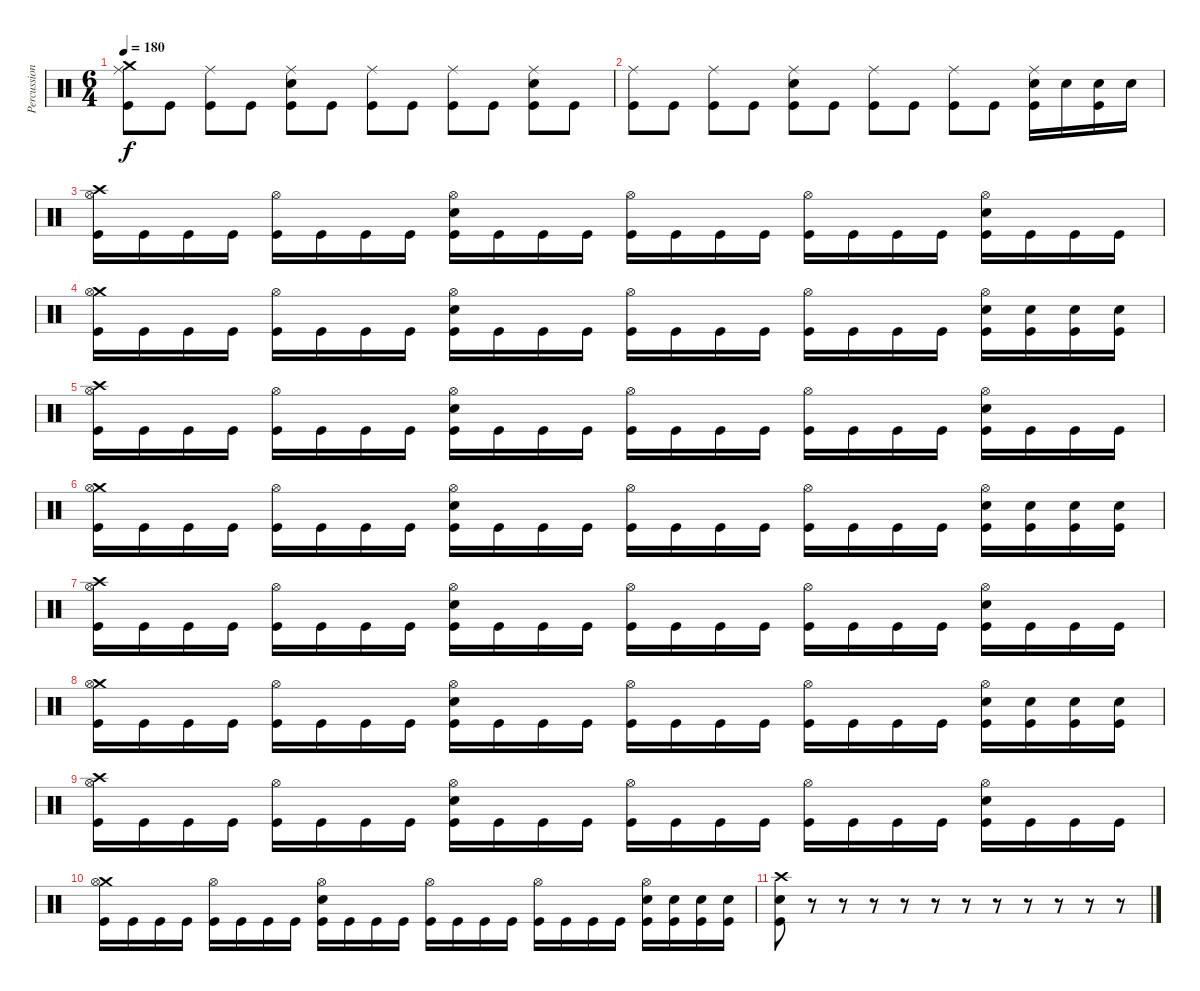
\track ("Percussion" "Percussion") {instrument percussion}
\staff {score}
\articulation defaults
\ts (6 4)
\tempo 180
\clef neutral
\ks c
("Crash medium (hit)" "Ride (middle)" "Kick (hit)").8{dy f} "Kick (hit)".8 ("Ride (middle)" "Kick (hit)").8 "Kick (hit)".8 ("Electric Snare (hit)" "Ride (middle)" "Kick (hit)").8 "Kick (hit)".8 ("Ride (middle)" "Kick (hit)").8 "Kick (hit)".8 ("Ride (middle)" "Kick (hit)").8 "Kick (hit)".8 ("Electric Snare (hit)" "Ride (middle)" "Kick (hit)").8 "Kick (hit)".8 |
("Ride (middle)" "Kick (hit)").8 "Kick (hit)".8 ("Ride (middle)" "Kick (hit)").8 "Kick (hit)".8 ("Electric Snare (hit)" "Ride (middle)" "Kick (hit)").8 "Kick (hit)".8 ("Ride (middle)" "Kick (hit)").8 "Kick (hit)".8 ("Ride (middle)" "Kick (hit)").8 "Kick (hit)".8 ("Electric Snare (hit)" "Ride (middle)" "Kick (hit)").16 "Electric Snare (hit)".16 ("Electric Snare (hit)" "Kick (hit)").16 "Electric Snare (hit)".16 |
("Crash high (hit)" "Hi-Hat (open)" "Kick (hit)").16 "Kick (hit)".16 "Kick (hit)".16 "Kick (hit)".16 ("Hi-Hat (open)" "Kick (hit)").16 "Kick (hit)".16 "Kick (hit)".16 "Kick (hit)".16 ("Electric Snare (hit)" "Hi-Hat (open)" "Kick (hit)").16 "Kick (hit)".16 "Kick (hit)".16 "Kick (hit)".16 ("Hi-Hat (open)" "Kick (hit)").16 "Kick (hit)".16 "Kick (hit)".16 "Kick (hit)".16 ("Hi-Hat (open)" "Kick (hit)").16 "Kick (hit)".16 "Kick (hit)".16 "Kick (hit)".16 ("Electric Snare (hit)" "Hi-Hat (open)" "Kick (hit)").16 "Kick (hit)".16 "Kick (hit)".16 "Kick (hit)".16 |
("Crash medium (hit)" "Hi-Hat (open)" "Kick (hit)").16 "Kick (hit)".16 "Kick (hit)".16 "Kick (hit)".16 ("Hi-Hat (open)" "Kick (hit)").16 "Kick (hit)".16 "Kick (hit)".16 "Kick (hit)".16 ("Electric Snare (hit)" "Hi-Hat (open)" "Kick (hit)").16 "Kick (hit)".16 "Kick (hit)".16 "Kick (hit)".16 ("Hi-Hat (open)" "Kick (hit)").16 "Kick (hit)".16 "Kick (hit)".16 "Kick (hit)".16 ("Hi-Hat (open)" "Kick (hit)").16 "Kick (hit)".16 "Kick (hit)".16 "Kick (hit)".16 ("Electric Snare (hit)" "Hi-Hat (open)" "Kick (hit)").16 ("Electric Snare (hit)" "Kick (hit)").16 ("Electric Snare (hit)" "Kick (hit)").16 ("Electric Snare (hit)" "Kick (hit)").16 |
("Crash high (hit)" "Hi-Hat (open)" "Kick (hit)").16 "Kick (hit)".16 "Kick (hit)".16 "Kick (hit)".16 ("Hi-Hat (open)" "Kick (hit)").16 "Kick (hit)".16 "Kick (hit)".16 "Kick (hit)".16 ("Electric Snare (hit)" "Hi-Hat (open)" "Kick (hit)").16 "Kick (hit)".16 "Kick (hit)".16 "Kick (hit)".16 ("Hi-Hat (open)" "Kick (hit)").16 "Kick (hit)".16 "Kick (hit)".16 "Kick (hit)".16 ("Hi-Hat (open)" "Kick (hit)").16 "Kick (hit)".16 "Kick (hit)".16 "Kick (hit)".16 ("Electric Snare (hit)" "Hi-Hat (open)" "Kick (hit)").16 "Kick (hit)".16 "Kick (hit)".16 "Kick (hit)".16 |
("Crash medium (hit)" "Hi-Hat (open)" "Kick (hit)").16 "Kick (hit)".16 "Kick (hit)".16 "Kick (hit)".16 ("Hi-Hat (open)" "Kick (hit)").16 "Kick (hit)".16 "Kick (hit)".16 "Kick (hit)".16 ("Electric Snare (hit)" "Hi-Hat (open)" "Kick (hit)").16 "Kick (hit)".16 "Kick (hit)".16 "Kick (hit)".16 ("Hi-Hat (open)" "Kick (hit)").16 "Kick (hit)".16 "Kick (hit)".16 "Kick (hit)".16 ("Hi-Hat (open)" "Kick (hit)").16 "Kick (hit)".16 "Kick (hit)".16 "Kick (hit)".16 ("Electric Snare (hit)" "Hi-Hat (open)" "Kick (hit)").16 ("Electric Snare (hit)" "Kick (hit)").16 ("Electric Snare (hit)" "Kick (hit)").16 ("Electric Snare (hit)" "Kick (hit)").16 |
("Crash high (hit)" "Hi-Hat (open)" "Kick (hit)").16 "Kick (hit)".16 "Kick (hit)".16 "Kick (hit)".16 ("Hi-Hat (open)" "Kick (hit)").16 "Kick (hit)".16 "Kick (hit)".16 "Kick (hit)".16 ("Electric Snare (hit)" "Hi-Hat (open)" "Kick (hit)").16 "Kick (hit)".16 "Kick (hit)".16 "Kick (hit)".16 ("Hi-Hat (open)" "Kick (hit)").16 "Kick (hit)".16 "Kick (hit)".16 "Kick (hit)".16 ("Hi-Hat (open)" "Kick (hit)").16 "Kick (hit)".16 "Kick (hit)".16 "Kick (hit)".16 ("Electric Snare (hit)" "Hi-Hat (open)" "Kick (hit)").16 "Kick (hit)".16 "Kick (hit)".16 "Kick (hit)".16 |
("Crash medium (hit)" "Hi-Hat (open)" "Kick (hit)").16 "Kick (hit)".16 "Kick (hit)".16 "Kick (hit)".16 ("Hi-Hat (open)" "Kick (hit)").16 "Kick (hit)".16 "Kick (hit)".16 "Kick (hit)".16 ("Electric Snare (hit)" "Hi-Hat (open)" "Kick (hit)").16 "Kick (hit)".16 "Kick (hit)".16 "Kick (hit)".16 ("Hi-Hat (open)" "Kick (hit)").16 "Kick (hit)".16 "Kick (hit)".16 "Kick (hit)".16 ("Hi-Hat (open)" "Kick (hit)").16 "Kick (hit)".16 "Kick (hit)".16 "Kick (hit)".16 ("Electric Snare (hit)" "Hi-Hat (open)" "Kick (hit)").16 ("Electric Snare (hit)" "Kick (hit)").16 ("Electric Snare (hit)" "Kick (hit)").16 ("Electric Snare (hit)" "Kick (hit)").16 |
("Crash high (hit)" "Hi-Hat (open)" "Kick (hit)").16 "Kick (hit)".16 "Kick (hit)".16 "Kick (hit)".16 ("Hi-Hat (open)" "Kick (hit)").16 "Kick (hit)".16 "Kick (hit)".16 "Kick (hit)".16 ("Electric Snare (hit)" "Hi-Hat (open)" "Kick (hit)").16 "Kick (hit)".16 "Kick (hit)".16 "Kick (hit)".16 ("Hi-Hat (open)" "Kick (hit)").16 "Kick (hit)".16 "Kick (hit)".16 "Kick (hit)".16 ("Hi-Hat (open)" "Kick (hit)").16 "Kick (hit)".16 "Kick (hit)".16 "Kick (hit)".16 ("Electric Snare (hit)" "Hi-Hat (open)" "Kick (hit)").16 "Kick (hit)".16 "Kick (hit)".16 "Kick (hit)".16 |
("Crash medium (hit)" "Hi-Hat (open)" "Kick (hit)").16 "Kick (hit)".16 "Kick (hit)".16 "Kick (hit)".16 ("Hi-Hat (open)" "Kick (hit)").16 "Kick (hit)".16 "Kick (hit)".16 "Kick (hit)".16 ("Electric Snare (hit)" "Hi-Hat (open)" "Kick (hit)").16 "Kick (hit)".16 "Kick (hit)".16 "Kick (hit)".16 ("Hi-Hat (open)" "Kick (hit)").16 "Kick (hit)".16 "Kick (hit)".16 "Kick (hit)".16 ("Hi-Hat (open)" "Kick (hit)").16 "Kick (hit)".16 "Kick (hit)".16 "Kick (hit)".16 ("Electric Snare (hit)" "Hi-Hat (open)" "Kick (hit)").16 ("Electric Snare (hit)" "Kick (hit)").16 ("Electric Snare (hit)" "Kick (hit)").16 ("Electric Snare (hit)" "Kick (hit)").16 |
("Crash high (hit)" "Electric Snare (hit)" "Kick (hit)").8 r.8 r.8 r.8 r.8 r.8 r.8 r.8 r.8 r.8 r.8 r.8
